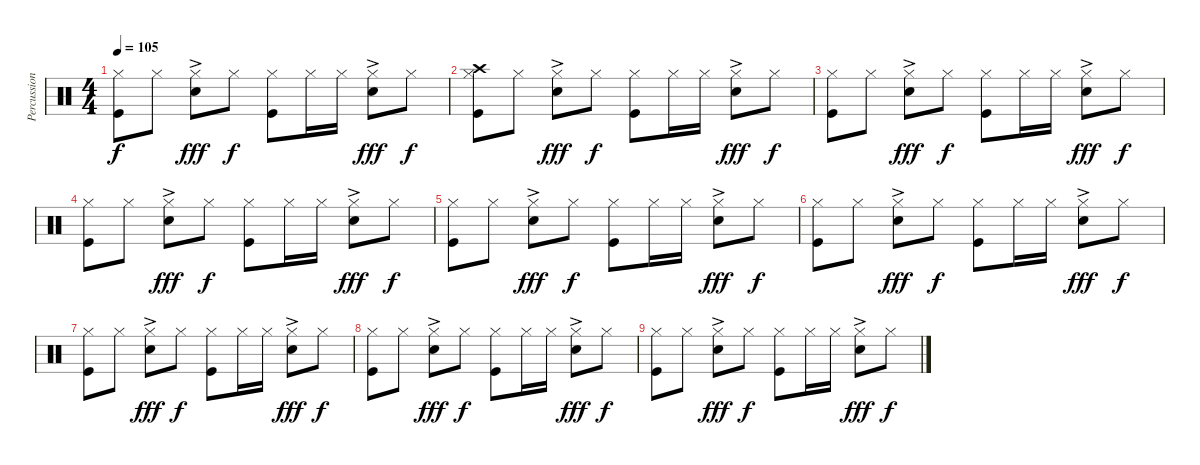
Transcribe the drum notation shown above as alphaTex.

\track ("Percussions" "Percussion") {instrument percussion}
\staff {score}
\articulation defaults
\ts (4 4)
\tempo 105
\clef neutral
\ks c
("Kick (hit)" "Hi-Hat (closed)").8{dy f} "Hi-Hat (closed)".8 ("Electric Snare (hit)"{ac} "Hi-Hat (closed)").8{dy fff} "Hi-Hat (closed)".8{dy f} ("Kick (hit)" "Hi-Hat (closed)").8 "Hi-Hat (closed)".16 "Hi-Hat (closed)".16 ("Electric Snare (hit)"{ac} "Hi-Hat (closed)").8{dy fff} "Hi-Hat (closed)".8{dy f} |
("Kick (hit)" "Crash high (hit)" "Hi-Hat (closed)").8 "Hi-Hat (closed)".8 ("Electric Snare (hit)"{ac} "Hi-Hat (closed)").8{dy fff} "Hi-Hat (closed)".8{dy f} ("Kick (hit)" "Hi-Hat (closed)").8 "Hi-Hat (closed)".16 "Hi-Hat (closed)".16 ("Electric Snare (hit)"{ac} "Hi-Hat (closed)").8{dy fff} "Hi-Hat (closed)".8{dy f} |
("Kick (hit)" "Hi-Hat (closed)").8 "Hi-Hat (closed)".8 ("Electric Snare (hit)"{ac} "Hi-Hat (closed)").8{dy fff} "Hi-Hat (closed)".8{dy f} ("Kick (hit)" "Hi-Hat (closed)").8 "Hi-Hat (closed)".16 "Hi-Hat (closed)".16 ("Electric Snare (hit)"{ac} "Hi-Hat (closed)").8{dy fff} "Hi-Hat (closed)".8{dy f} |
("Kick (hit)" "Hi-Hat (closed)").8 "Hi-Hat (closed)".8 ("Electric Snare (hit)"{ac} "Hi-Hat (closed)").8{dy fff} "Hi-Hat (closed)".8{dy f} ("Kick (hit)" "Hi-Hat (closed)").8 "Hi-Hat (closed)".16 "Hi-Hat (closed)".16 ("Electric Snare (hit)"{ac} "Hi-Hat (closed)").8{dy fff} "Hi-Hat (closed)".8{dy f} |
("Kick (hit)" "Hi-Hat (closed)").8 "Hi-Hat (closed)".8 ("Electric Snare (hit)"{ac} "Hi-Hat (closed)").8{dy fff} "Hi-Hat (closed)".8{dy f} ("Kick (hit)" "Hi-Hat (closed)").8 "Hi-Hat (closed)".16 "Hi-Hat (closed)".16 ("Electric Snare (hit)"{ac} "Hi-Hat (closed)").8{dy fff} "Hi-Hat (closed)".8{dy f} |
("Kick (hit)" "Hi-Hat (closed)").8 "Hi-Hat (closed)".8 ("Electric Snare (hit)"{ac} "Hi-Hat (closed)").8{dy fff} "Hi-Hat (closed)".8{dy f} ("Kick (hit)" "Hi-Hat (closed)").8 "Hi-Hat (closed)".16 "Hi-Hat (closed)".16 ("Electric Snare (hit)"{ac} "Hi-Hat (closed)").8{dy fff} "Hi-Hat (closed)".8{dy f} |
("Kick (hit)" "Hi-Hat (closed)").8 "Hi-Hat (closed)".8 ("Electric Snare (hit)"{ac} "Hi-Hat (closed)").8{dy fff} "Hi-Hat (closed)".8{dy f} ("Kick (hit)" "Hi-Hat (closed)").8 "Hi-Hat (closed)".16 "Hi-Hat (closed)".16 ("Electric Snare (hit)"{ac} "Hi-Hat (closed)").8{dy fff} "Hi-Hat (closed)".8{dy f} |
("Kick (hit)" "Hi-Hat (closed)").8 "Hi-Hat (closed)".8 ("Electric Snare (hit)"{ac} "Hi-Hat (closed)").8{dy fff} "Hi-Hat (closed)".8{dy f} ("Kick (hit)" "Hi-Hat (closed)").8 "Hi-Hat (closed)".16 "Hi-Hat (closed)".16 ("Electric Snare (hit)"{ac} "Hi-Hat (closed)").8{dy fff} "Hi-Hat (closed)".8{dy f} |
("Kick (hit)" "Hi-Hat (closed)").8 "Hi-Hat (closed)".8 ("Electric Snare (hit)"{ac} "Hi-Hat (closed)").8{dy fff} "Hi-Hat (closed)".8{dy f} ("Kick (hit)" "Hi-Hat (closed)").8 "Hi-Hat (closed)".16 "Hi-Hat (closed)".16 ("Electric Snare (hit)"{ac} "Hi-Hat (closed)").8{dy fff} "Hi-Hat (closed)".8{dy f}
